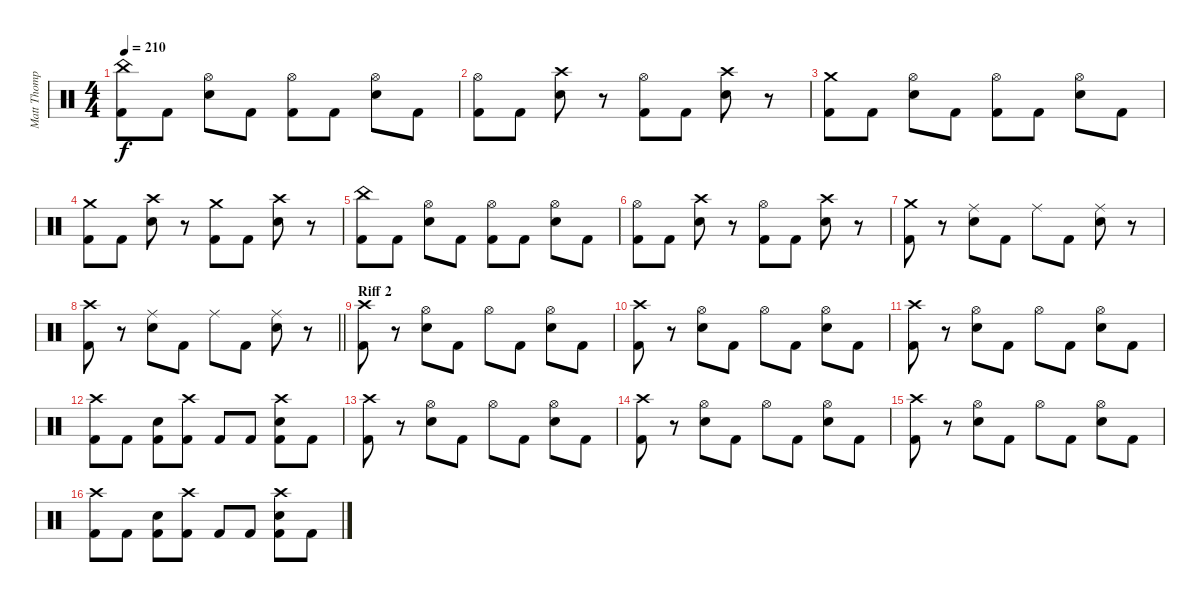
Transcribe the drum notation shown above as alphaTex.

\track ("Matt Thompson" "Matt Thomp") {instrument percussion}
\staff {score}
\articulation defaults
\ts (4 4)
\tempo 210
\clef neutral
\ks c
("China (hit)" "Kick (hit) 2").8{dy f} "Kick (hit) 2".8 ("Hi-Hat (open)" "Electric Snare (hit)").8 "Kick (hit) 2".8 ("Hi-Hat (open)" "Kick (hit) 2").8 "Kick (hit) 2".8 ("Hi-Hat (open)" "Electric Snare (hit)").8 "Kick (hit) 2".8 |
("Hi-Hat (open)" "Kick (hit) 2").8 "Kick (hit) 2".8 ("Crash high (hit)" "Electric Snare (hit)").8 r.8 ("Hi-Hat (open)" "Kick (hit) 2").8 "Kick (hit) 2".8 ("Crash high (hit)" "Electric Snare (hit)").8 r.8 |
("Crash medium (hit)" "Kick (hit) 2").8 "Kick (hit) 2".8 ("Hi-Hat (open)" "Electric Snare (hit)").8 "Kick (hit) 2".8 ("Hi-Hat (open)" "Kick (hit) 2").8 "Kick (hit) 2".8 ("Hi-Hat (open)" "Electric Snare (hit)").8 "Kick (hit) 2".8 |
("Crash medium (hit)" "Kick (hit) 2").8 "Kick (hit) 2".8 ("Crash high (hit)" "Electric Snare (hit)").8 r.8 ("Crash medium (hit)" "Kick (hit) 2").8 "Kick (hit) 2".8 ("Crash high (hit)" "Electric Snare (hit)").8 r.8 |
("China (hit)" "Kick (hit) 2").8 "Kick (hit) 2".8 ("Hi-Hat (open)" "Electric Snare (hit)").8 "Kick (hit) 2".8 ("Hi-Hat (open)" "Kick (hit) 2").8 "Kick (hit) 2".8 ("Hi-Hat (open)" "Electric Snare (hit)").8 "Kick (hit) 2".8 |
("Hi-Hat (open)" "Kick (hit) 2").8 "Kick (hit) 2".8 ("Crash high (hit)" "Electric Snare (hit)").8 r.8 ("Hi-Hat (open)" "Kick (hit) 2").8 "Kick (hit) 2".8 ("Crash high (hit)" "Electric Snare (hit)").8 r.8 |
("Crash medium (hit)" "Kick (hit) 2").8 r.8 ("Ride (middle)" "Electric Snare (hit)").8 "Kick (hit) 2".8 "Ride (middle)".8 "Kick (hit) 2".8 ("Ride (middle)" "Electric Snare (hit)").8 r.8 |
\barLineRight lightlight
("Crash high (hit)" "Kick (hit) 2").8 r.8 ("Ride (middle)" "Electric Snare (hit)").8 "Kick (hit) 2".8 "Ride (middle)".8 "Kick (hit) 2".8 ("Ride (middle)" "Electric Snare (hit)").8 r.8 |
\section ("" "Riff 2")
("Crash high (hit)" "Kick (hit) 2").8 r.8 ("Hi-Hat (open)" "Electric Snare (hit)").8 "Kick (hit) 2".8 "Hi-Hat (open)".8 "Kick (hit) 2".8 ("Hi-Hat (open)" "Electric Snare (hit)").8 "Kick (hit) 2".8 |
("Crash high (hit)" "Kick (hit) 2").8 r.8 ("Hi-Hat (open)" "Electric Snare (hit)").8 "Kick (hit) 2".8 "Hi-Hat (open)".8 "Kick (hit) 2".8 ("Hi-Hat (open)" "Electric Snare (hit)").8 "Kick (hit) 2".8 |
("Crash high (hit)" "Kick (hit) 2").8 r.8 ("Hi-Hat (open)" "Electric Snare (hit)").8 "Kick (hit) 2".8 "Hi-Hat (open)".8 "Kick (hit) 2".8 ("Hi-Hat (open)" "Electric Snare (hit)").8 "Kick (hit) 2".8 |
("Crash high (hit)" "Kick (hit) 2").8 "Kick (hit) 2".8 ("Electric Snare (hit)" "Kick (hit) 2").8 ("Crash high (hit)" "Kick (hit) 2").8 "Kick (hit) 2".8 "Kick (hit) 2".8 ("Crash high (hit)" "Electric Snare (hit)" "Kick (hit) 2").8 "Kick (hit) 2".8 |
("Crash high (hit)" "Kick (hit) 2").8 r.8 ("Hi-Hat (open)" "Electric Snare (hit)").8 "Kick (hit) 2".8 "Hi-Hat (open)".8 "Kick (hit) 2".8 ("Hi-Hat (open)" "Electric Snare (hit)").8 "Kick (hit) 2".8 |
("Crash high (hit)" "Kick (hit) 2").8 r.8 ("Hi-Hat (open)" "Electric Snare (hit)").8 "Kick (hit) 2".8 "Hi-Hat (open)".8 "Kick (hit) 2".8 ("Hi-Hat (open)" "Electric Snare (hit)").8 "Kick (hit) 2".8 |
("Crash high (hit)" "Kick (hit) 2").8 r.8 ("Hi-Hat (open)" "Electric Snare (hit)").8 "Kick (hit) 2".8 "Hi-Hat (open)".8 "Kick (hit) 2".8 ("Hi-Hat (open)" "Electric Snare (hit)").8 "Kick (hit) 2".8 |
("Crash high (hit)" "Kick (hit) 2").8 "Kick (hit) 2".8 ("Electric Snare (hit)" "Kick (hit) 2").8 ("Crash high (hit)" "Kick (hit) 2").8 "Kick (hit) 2".8 "Kick (hit) 2".8 ("Crash high (hit)" "Electric Snare (hit)" "Kick (hit) 2").8 "Kick (hit) 2".8
